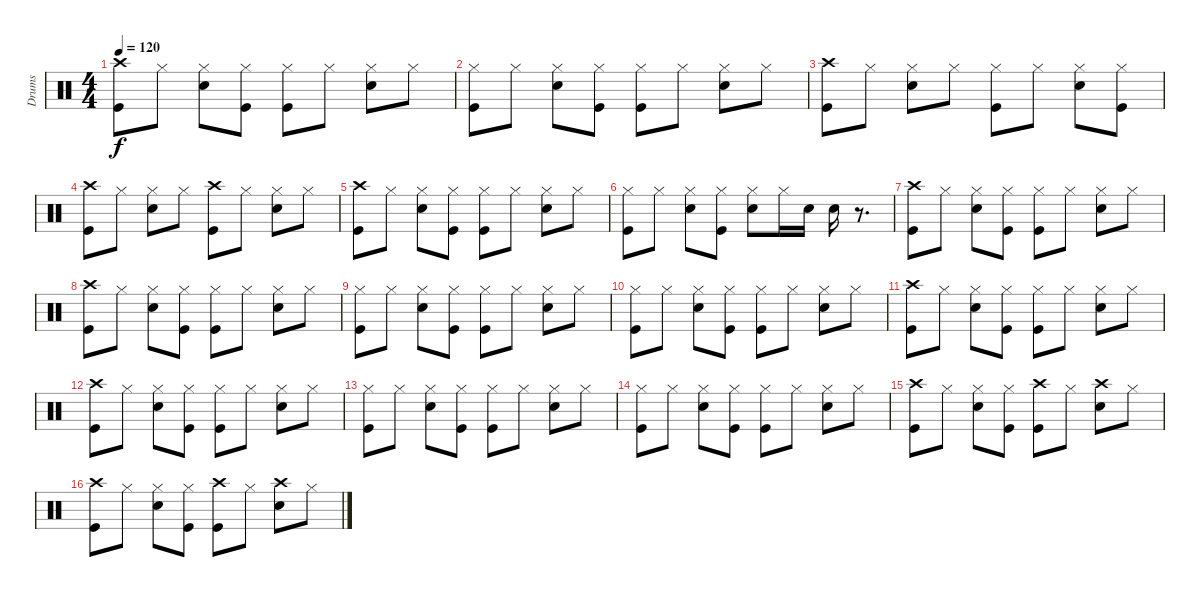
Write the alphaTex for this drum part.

\track ("Drums" "Drums") {instrument percussion}
\staff {score}
\articulation defaults
\ts (4 4)
\tempo 120
\clef neutral
\ks c
("Crash high (hit)" "Kick (hit)").8{dy f} "Hi-Hat (closed)".8 ("Hi-Hat (closed)" "Snare (hit) 2").8 ("Hi-Hat (closed)" "Kick (hit)").8 ("Hi-Hat (closed)" "Kick (hit)").8 "Hi-Hat (closed)".8 ("Hi-Hat (closed)" "Snare (hit) 2").8 "Hi-Hat (closed)".8 |
("Hi-Hat (closed)" "Kick (hit)").8 "Hi-Hat (closed)".8 ("Hi-Hat (closed)" "Snare (hit) 2").8 ("Hi-Hat (closed)" "Kick (hit)").8 ("Hi-Hat (closed)" "Kick (hit)").8 "Hi-Hat (closed)".8 ("Hi-Hat (closed)" "Snare (hit) 2").8 "Hi-Hat (closed)".8 |
("Crash high (hit)" "Kick (hit)").8 "Hi-Hat (closed)".8 ("Hi-Hat (closed)" "Snare (hit) 2").8 "Hi-Hat (closed)".8 ("Hi-Hat (closed)" "Kick (hit)").8 "Hi-Hat (closed)".8 ("Hi-Hat (closed)" "Snare (hit) 2").8 ("Hi-Hat (closed)" "Kick (hit)").8 |
("Crash high (hit)" "Kick (hit)").8 "Hi-Hat (closed)".8 ("Hi-Hat (closed)" "Snare (hit) 2").8 "Hi-Hat (closed)".8 ("Crash high (hit)" "Kick (hit)").8 "Hi-Hat (closed)".8 ("Hi-Hat (closed)" "Snare (hit) 2").8 "Hi-Hat (closed)".8 |
("Crash high (hit)" "Kick (hit)").8 "Hi-Hat (closed)".8 ("Hi-Hat (closed)" "Snare (hit) 2").8 ("Hi-Hat (closed)" "Kick (hit)").8 ("Hi-Hat (closed)" "Kick (hit)").8 "Hi-Hat (closed)".8 ("Hi-Hat (closed)" "Snare (hit) 2").8 "Hi-Hat (closed)".8 |
("Hi-Hat (closed)" "Kick (hit)").8 "Hi-Hat (closed)".8 ("Hi-Hat (closed)" "Snare (hit) 2").8 ("Hi-Hat (closed)" "Kick (hit)").8 ("Hi-Hat (closed)" "Snare (hit) 2").8 "Hi-Hat (closed)".16 "Snare (hit) 2".16 "Snare (hit) 2".16 r.8{d} |
("Crash high (hit)" "Kick (hit)").8 "Hi-Hat (closed)".8 ("Hi-Hat (closed)" "Snare (hit) 2").8 ("Hi-Hat (closed)" "Kick (hit)").8 ("Hi-Hat (closed)" "Kick (hit)").8 "Hi-Hat (closed)".8 ("Hi-Hat (closed)" "Snare (hit) 2").8 "Hi-Hat (closed)".8 |
("Crash high (hit)" "Kick (hit)").8 "Hi-Hat (closed)".8 ("Hi-Hat (closed)" "Snare (hit) 2").8 ("Hi-Hat (closed)" "Kick (hit)").8 ("Hi-Hat (closed)" "Kick (hit)").8 "Hi-Hat (closed)".8 ("Hi-Hat (closed)" "Snare (hit) 2").8 "Hi-Hat (closed)".8 |
("Hi-Hat (closed)" "Kick (hit)").8 "Hi-Hat (closed)".8 ("Hi-Hat (closed)" "Snare (hit) 2").8 ("Hi-Hat (closed)" "Kick (hit)").8 ("Hi-Hat (closed)" "Kick (hit)").8 "Hi-Hat (closed)".8 ("Hi-Hat (closed)" "Snare (hit) 2").8 "Hi-Hat (closed)".8 |
("Hi-Hat (closed)" "Kick (hit)").8 "Hi-Hat (closed)".8 ("Hi-Hat (closed)" "Snare (hit) 2").8 ("Hi-Hat (closed)" "Kick (hit)").8 ("Hi-Hat (closed)" "Kick (hit)").8 "Hi-Hat (closed)".8 ("Hi-Hat (closed)" "Snare (hit) 2").8 "Hi-Hat (closed)".8 |
("Crash high (hit)" "Kick (hit)").8 "Hi-Hat (closed)".8 ("Hi-Hat (closed)" "Snare (hit) 2").8 ("Hi-Hat (closed)" "Kick (hit)").8 ("Hi-Hat (closed)" "Kick (hit)").8 "Hi-Hat (closed)".8 ("Hi-Hat (closed)" "Snare (hit) 2").8 "Hi-Hat (closed)".8 |
("Crash high (hit)" "Kick (hit)").8 "Hi-Hat (closed)".8 ("Hi-Hat (closed)" "Snare (hit) 2").8 ("Hi-Hat (closed)" "Kick (hit)").8 ("Hi-Hat (closed)" "Kick (hit)").8 "Hi-Hat (closed)".8 ("Hi-Hat (closed)" "Snare (hit) 2").8 "Hi-Hat (closed)".8 |
("Hi-Hat (closed)" "Kick (hit)").8 "Hi-Hat (closed)".8 ("Hi-Hat (closed)" "Snare (hit) 2").8 ("Hi-Hat (closed)" "Kick (hit)").8 ("Hi-Hat (closed)" "Kick (hit)").8 "Hi-Hat (closed)".8 ("Hi-Hat (closed)" "Snare (hit) 2").8 "Hi-Hat (closed)".8 |
("Hi-Hat (closed)" "Kick (hit)").8 "Hi-Hat (closed)".8 ("Hi-Hat (closed)" "Snare (hit) 2").8 ("Hi-Hat (closed)" "Kick (hit)").8 ("Hi-Hat (closed)" "Kick (hit)").8 "Hi-Hat (closed)".8 ("Hi-Hat (closed)" "Snare (hit) 2").8 "Hi-Hat (closed)".8 |
("Crash high (hit)" "Kick (hit)").8 "Hi-Hat (closed)".8 ("Hi-Hat (closed)" "Snare (hit) 2").8 ("Hi-Hat (closed)" "Kick (hit)").8 ("Crash high (hit)" "Kick (hit)").8 "Hi-Hat (closed)".8 ("Crash high (hit)" "Snare (hit) 2").8 "Hi-Hat (closed)".8 |
("Crash high (hit)" "Kick (hit)").8 "Hi-Hat (closed)".8 ("Hi-Hat (closed)" "Snare (hit) 2").8 ("Hi-Hat (closed)" "Kick (hit)").8 ("Crash high (hit)" "Kick (hit)").8 "Hi-Hat (closed)".8 ("Crash high (hit)" "Snare (hit) 2").8 "Hi-Hat (closed)".8
